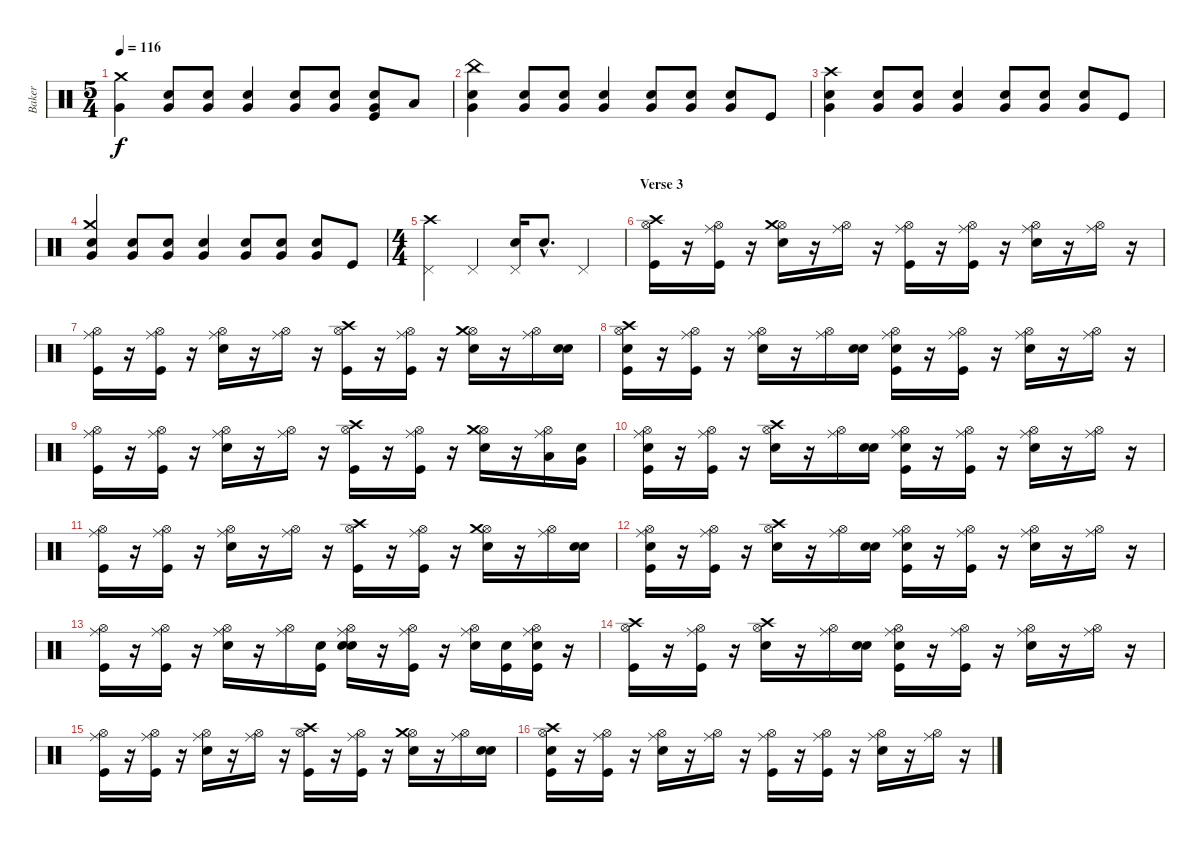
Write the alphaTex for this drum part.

\track ("Baker" "Baker") {instrument percussion}
\staff {score}
\articulation defaults
\ts (5 4)
\tempo 116
\clef neutral
\ks c
("Very Low Tom (hit)" "Crash medium (hit)").4{dy f} ("Electric Snare (hit)" "Very Low Tom (hit)").8 ("Electric Snare (hit)" "Very Low Tom (hit)").8 ("Electric Snare (hit)" "Very Low Tom (hit)").4 ("Electric Snare (hit)" "Very Low Tom (hit)").8 ("Electric Snare (hit)" "Very Low Tom (hit)").8 ("Kick (hit)" "Electric Snare (hit)" "Very Low Tom (hit)").8 "Low Floor Tom (hit)".8 |
("Electric Snare (hit)" "Very Low Tom (hit)" "China (hit)").4 ("Electric Snare (hit)" "Very Low Tom (hit)").8 ("Electric Snare (hit)" "Very Low Tom (hit)").8 ("Electric Snare (hit)" "Very Low Tom (hit)").4 ("Electric Snare (hit)" "Very Low Tom (hit)").8 ("Electric Snare (hit)" "Very Low Tom (hit)").8 ("Electric Snare (hit)" "Very Low Tom (hit)").8 "Kick (hit)".8 |
("Electric Snare (hit)" "Very Low Tom (hit)" "Crash high (hit)").4 ("Electric Snare (hit)" "Very Low Tom (hit)").8 ("Electric Snare (hit)" "Very Low Tom (hit)").8 ("Electric Snare (hit)" "Very Low Tom (hit)").4 ("Electric Snare (hit)" "Very Low Tom (hit)").8 ("Electric Snare (hit)" "Very Low Tom (hit)").8 ("Electric Snare (hit)" "Very Low Tom (hit)").8 "Kick (hit)".8 |
("Electric Snare (hit)" "Very Low Tom (hit)" "Crash medium (hit)").4 ("Electric Snare (hit)" "Very Low Tom (hit)").8 ("Electric Snare (hit)" "Very Low Tom (hit)").8 ("Electric Snare (hit)" "Very Low Tom (hit)").4 ("Electric Snare (hit)" "Very Low Tom (hit)").8 ("Electric Snare (hit)" "Very Low Tom (hit)").8 ("Electric Snare (hit)" "Very Low Tom (hit)").8 "Kick (hit)".8 |
\ts (4 4)
("Pedal Hi-Hat (hit)" "Crash high (hit)").4 "Pedal Hi-Hat (hit)".4 ("Electric Snare (hit)" "Pedal Hi-Hat (hit)").16 "Electric Snare (hit)"{hac}.8{d} "Pedal Hi-Hat (hit)".4 |
\section ("" "Verse 3")
("Kick (hit)" "Hi-Hat (open)" "Crash high (hit)").16 r.16 ("Kick (hit)" "Hi-Hat (open)" "Ride (middle)").16 r.16 ("Electric Snare (hit)" "Hi-Hat (open)" "Crash medium (hit)").16 r.16 ("Hi-Hat (open)" "Ride (middle)").16 r.16 ("Kick (hit)" "Hi-Hat (open)" "Ride (middle)").16 r.16 ("Kick (hit)" "Hi-Hat (open)" "Ride (middle)").16 r.16 ("Electric Snare (hit)" "Hi-Hat (open)" "Ride (middle)").16 r.16 ("Hi-Hat (open)" "Ride (middle)").16 r.16 |
("Kick (hit)" "Hi-Hat (open)" "Ride (middle)").16 r.16 ("Kick (hit)" "Hi-Hat (open)" "Ride (middle)").16 r.16 ("Electric Snare (hit)" "Hi-Hat (open)" "Ride (middle)").16 r.16 ("Hi-Hat (open)" "Ride (middle)").16 r.16 ("Kick (hit)" "Hi-Hat (open)" "Crash high (hit)").16 r.16 ("Kick (hit)" "Hi-Hat (open)" "Ride (middle)").16 r.16 ("Electric Snare (hit)" "Hi-Hat (open)" "Crash medium (hit)").16 r.16 ("Hi-Hat (open)" "Ride (middle)").16 ("Snare (hit)" "Electric Snare (hit)").16 |
("Snare (hit)" "Kick (hit)" "Hi-Hat (open)" "Crash high (hit)").16 r.16 ("Kick (hit)" "Hi-Hat (open)" "Ride (middle)").16 r.16 ("Electric Snare (hit)" "Hi-Hat (open)" "Ride (middle)").16 r.16 ("Hi-Hat (open)" "Ride (middle)").16 ("Snare (hit)" "Electric Snare (hit)").16 ("Snare (hit)" "Kick (hit)" "Hi-Hat (open)" "Ride (middle)").16 r.16 ("Kick (hit)" "Hi-Hat (open)" "Ride (middle)").16 r.16 ("Electric Snare (hit)" "Hi-Hat (open)" "Ride (middle)").16 r.16 ("Hi-Hat (open)" "Ride (middle)").16 r.16 |
("Kick (hit)" "Hi-Hat (open)" "Ride (middle)").16 r.16 ("Kick (hit)" "Hi-Hat (open)" "Ride (middle)").16 r.16 ("Electric Snare (hit)" "Hi-Hat (open)" "Ride (middle)").16 r.16 ("Hi-Hat (open)" "Ride (middle)").16 r.16 ("Kick (hit)" "Hi-Hat (open)" "Crash high (hit)").16 r.16 ("Kick (hit)" "Hi-Hat (open)" "Ride (middle)").16 r.16 ("Electric Snare (hit)" "Hi-Hat (open)" "Crash medium (hit)").16 r.16 ("Low Tom (hit)" "Hi-Hat (open)" "Ride (middle)").16 ("Snare (hit)" "Very Low Tom (hit)").16 |
("Snare (hit)" "Kick (hit)" "Hi-Hat (open)" "Ride (middle)").16 r.16 ("Kick (hit)" "Hi-Hat (open)" "Ride (middle)").16 r.16 ("Electric Snare (hit)" "Hi-Hat (open)" "Crash high (hit)").16 r.16 ("Hi-Hat (open)" "Ride (middle)").16 ("Snare (hit)" "Electric Snare (hit)").16 ("Snare (hit)" "Kick (hit)" "Hi-Hat (open)" "Ride (middle)").16 r.16 ("Kick (hit)" "Hi-Hat (open)" "Ride (middle)").16 r.16 ("Electric Snare (hit)" "Hi-Hat (open)" "Ride (middle)").16 r.16 ("Hi-Hat (open)" "Ride (middle)").16 r.16 |
("Kick (hit)" "Hi-Hat (open)" "Ride (middle)").16 r.16 ("Kick (hit)" "Hi-Hat (open)" "Ride (middle)").16 r.16 ("Electric Snare (hit)" "Hi-Hat (open)" "Ride (middle)").16 r.16 ("Hi-Hat (open)" "Ride (middle)").16 r.16 ("Kick (hit)" "Hi-Hat (open)" "Crash high (hit)").16 r.16 ("Kick (hit)" "Hi-Hat (open)" "Ride (middle)").16 r.16 ("Electric Snare (hit)" "Hi-Hat (open)" "Crash medium (hit)").16 r.16 ("Hi-Hat (open)" "Ride (middle)").16 ("Snare (hit)" "Electric Snare (hit)").16 |
("Snare (hit)" "Kick (hit)" "Hi-Hat (open)" "Ride (middle)").16 r.16 ("Kick (hit)" "Hi-Hat (open)" "Ride (middle)").16 r.16 ("Electric Snare (hit)" "Hi-Hat (open)" "Crash high (hit)").16 r.16 ("Hi-Hat (open)" "Ride (middle)").16 ("Snare (hit)" "Electric Snare (hit)").16 ("Snare (hit)" "Kick (hit)" "Hi-Hat (open)" "Ride (middle)").16 r.16 ("Kick (hit)" "Hi-Hat (open)" "Ride (middle)").16 r.16 ("Electric Snare (hit)" "Hi-Hat (open)" "Ride (middle)").16 r.16 ("Hi-Hat (open)" "Ride (middle)").16 r.16 |
("Kick (hit)" "Hi-Hat (open)" "Ride (middle)").16 r.16 ("Kick (hit)" "Hi-Hat (open)" "Ride (middle)").16 r.16 ("Electric Snare (hit)" "Hi-Hat (open)" "Ride (middle)").16 r.16 ("Hi-Hat (open)" "Ride (middle)").16 ("Snare (hit)" "Kick (hit)").16 ("Snare (hit)" "Electric Snare (hit)" "Hi-Hat (open)" "Ride (middle)").16 r.16 ("Kick (hit)" "Hi-Hat (open)" "Ride (middle)").16 r.16 ("Electric Snare (hit)" "Hi-Hat (open)" "Ride (middle)").16 ("Snare (hit)" "Kick (hit)").16 ("Snare (hit)" "Kick (hit)" "Hi-Hat (open)" "Ride (middle)").16 r.16 |
("Kick (hit)" "Hi-Hat (open)" "Crash high (hit)").16 r.16 ("Kick (hit)" "Hi-Hat (open)" "Ride (middle)").16 r.16 ("Electric Snare (hit)" "Hi-Hat (open)" "Crash high (hit)").16 r.16 ("Hi-Hat (open)" "Ride (middle)").16 ("Snare (hit)" "Electric Snare (hit)").16 ("Snare (hit)" "Kick (hit)" "Hi-Hat (open)" "Ride (middle)").16 r.16 ("Kick (hit)" "Hi-Hat (open)" "Ride (middle)").16 r.16 ("Electric Snare (hit)" "Hi-Hat (open)" "Ride (middle)").16 r.16 ("Hi-Hat (open)" "Ride (middle)").16 r.16 |
("Kick (hit)" "Hi-Hat (open)" "Ride (middle)").16 r.16 ("Kick (hit)" "Hi-Hat (open)" "Ride (middle)").16 r.16 ("Electric Snare (hit)" "Hi-Hat (open)" "Ride (middle)").16 r.16 ("Hi-Hat (open)" "Ride (middle)").16 r.16 ("Kick (hit)" "Hi-Hat (open)" "Crash high (hit)").16 r.16 ("Kick (hit)" "Hi-Hat (open)" "Ride (middle)").16 r.16 ("Electric Snare (hit)" "Hi-Hat (open)" "Crash medium (hit)").16 r.16 ("Hi-Hat (open)" "Ride (middle)").16 ("Snare (hit)" "Electric Snare (hit)").16 |
("Snare (hit)" "Kick (hit)" "Hi-Hat (open)" "Crash high (hit)").16 r.16 ("Kick (hit)" "Hi-Hat (open)" "Ride (middle)").16 r.16 ("Electric Snare (hit)" "Hi-Hat (open)" "Ride (middle)").16 r.16 ("Hi-Hat (open)" "Ride (middle)").16 r.16 ("Kick (hit)" "Hi-Hat (open)" "Ride (middle)").16 r.16 ("Kick (hit)" "Hi-Hat (open)" "Ride (middle)").16 r.16 ("Electric Snare (hit)" "Hi-Hat (open)" "Ride (middle)").16 r.16 ("Hi-Hat (open)" "Ride (middle)").16 r.16
